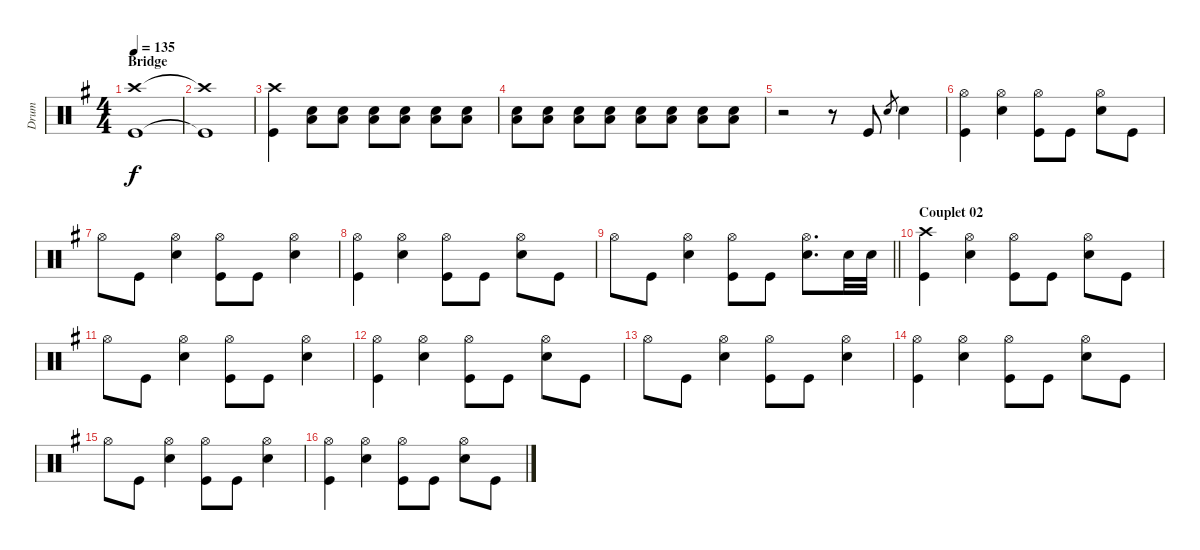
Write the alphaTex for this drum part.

\track ("Drum" "Drum") {instrument percussion}
\staff {score}
\articulation defaults
\ts (4 4)
\section ("" "Bridge")
\tempo 135
\clef neutral
\ks g
("Crash high (hit)" "Kick (hit)").1{dy f} |
("Crash high (hit)"{t} "Kick (hit)"{t}).1 |
("Kick (hit)" "Crash high (hit)").4 ("Low Floor Tom (hit)" "Snare (hit) 2").8{volume 4} ("Low Floor Tom (hit)" "Snare (hit) 2").8{volume 16} ("Low Floor Tom (hit)" "Snare (hit) 2").8 ("Low Floor Tom (hit)" "Snare (hit) 2").8 ("Low Floor Tom (hit)" "Snare (hit) 2").8 ("Low Floor Tom (hit)" "Snare (hit) 2").8 |
("Low Floor Tom (hit)" "Snare (hit) 2").8 ("Low Floor Tom (hit)" "Snare (hit) 2").8 ("Low Floor Tom (hit)" "Snare (hit) 2").8 ("Low Floor Tom (hit)" "Snare (hit) 2").8 ("Low Floor Tom (hit)" "Snare (hit) 2").8 ("Low Floor Tom (hit)" "Snare (hit) 2").8 ("Low Floor Tom (hit)" "Snare (hit) 2").8 ("Low Floor Tom (hit)" "Snare (hit) 2").8 |
r.2 r.8 "Kick (hit)".8 "Snare (hit) 2".8{gr} "Snare (hit) 2".4 |
("Hi-Hat (open)" "Kick (hit)").4 ("Hi-Hat (open)" "Snare (hit) 2").4 ("Hi-Hat (open)" "Kick (hit)").8 "Kick (hit)".8 ("Hi-Hat (open)" "Snare (hit) 2").8 "Kick (hit)".8 |
"Hi-Hat (open)".8 "Kick (hit)".8 ("Snare (hit) 2" "Hi-Hat (open)").4 ("Hi-Hat (open)" "Kick (hit)").8 "Kick (hit)".8 ("Snare (hit) 2" "Hi-Hat (open)").4 |
("Hi-Hat (open)" "Kick (hit)").4 ("Hi-Hat (open)" "Snare (hit) 2").4 ("Hi-Hat (open)" "Kick (hit)").8 "Kick (hit)".8 ("Hi-Hat (open)" "Snare (hit) 2").8 "Kick (hit)".8 |
\barLineRight lightlight "Hi-Hat (open)".8 "Kick (hit)".8
("Snare (hit) 2" "Hi-Hat (open)").4 ("Hi-Hat (open)" "Kick (hit)").8 "Kick (hit)".8 ("Snare (hit) 2" "Hi-Hat (open)").8{d} "Snare (hit) 2".32 "Snare (hit) 2".32 |
\section ("" "Couplet 02")
("Crash high (hit)" "Kick (hit)").4 ("Hi-Hat (open)" "Snare (hit) 2").4 ("Hi-Hat (open)" "Kick (hit)").8 "Kick (hit)".8 ("Hi-Hat (open)" "Snare (hit) 2").8 "Kick (hit)".8 |
"Hi-Hat (open)".8 "Kick (hit)".8 ("Snare (hit) 2" "Hi-Hat (open)").4 ("Hi-Hat (open)" "Kick (hit)").8 "Kick (hit)".8 ("Snare (hit) 2" "Hi-Hat (open)").4 |
("Hi-Hat (open)" "Kick (hit)").4 ("Hi-Hat (open)" "Snare (hit) 2").4 ("Hi-Hat (open)" "Kick (hit)").8 "Kick (hit)".8 ("Hi-Hat (open)" "Snare (hit) 2").8 "Kick (hit)".8 |
"Hi-Hat (open)".8 "Kick (hit)".8 ("Snare (hit) 2" "Hi-Hat (open)").4 ("Hi-Hat (open)" "Kick (hit)").8 "Kick (hit)".8 ("Snare (hit) 2" "Hi-Hat (open)").4 |
("Hi-Hat (open)" "Kick (hit)").4 ("Hi-Hat (open)" "Snare (hit) 2").4 ("Hi-Hat (open)" "Kick (hit)").8 "Kick (hit)".8 ("Hi-Hat (open)" "Snare (hit) 2").8 "Kick (hit)".8 |
"Hi-Hat (open)".8 "Kick (hit)".8 ("Snare (hit) 2" "Hi-Hat (open)").4 ("Hi-Hat (open)" "Kick (hit)").8 "Kick (hit)".8 ("Snare (hit) 2" "Hi-Hat (open)").4 |
("Hi-Hat (open)" "Kick (hit)").4 ("Hi-Hat (open)" "Snare (hit) 2").4 ("Hi-Hat (open)" "Kick (hit)").8 "Kick (hit)".8 ("Hi-Hat (open)" "Snare (hit) 2").8 "Kick (hit)".8
